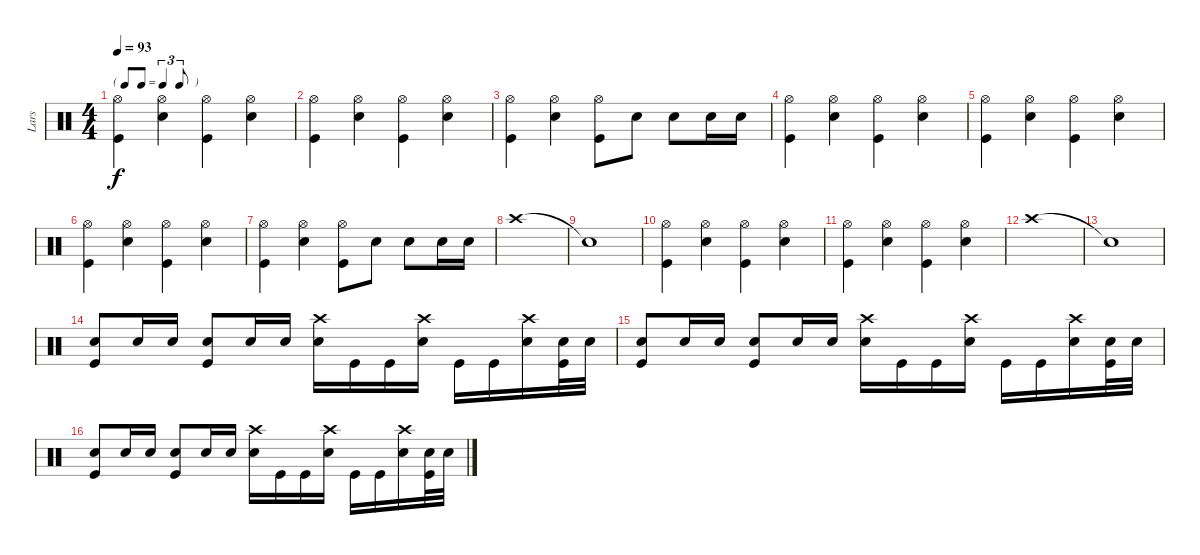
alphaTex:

\track ("Lars" "Lars") {instrument percussion}
\staff {score}
\articulation defaults
\ts (4 4)
\tf triplet8th
\tempo 93
\clef neutral
\ks c
("Hi-Hat (open)" "Kick (hit)").4{dy f} ("Hi-Hat (open)" "Snare (hit) 2").4 ("Hi-Hat (open)" "Kick (hit)").4 ("Hi-Hat (open)" "Snare (hit) 2").4 |
("Hi-Hat (open)" "Kick (hit)").4 ("Hi-Hat (open)" "Snare (hit) 2").4 ("Hi-Hat (open)" "Kick (hit)").4 ("Hi-Hat (open)" "Snare (hit) 2").4 |
("Hi-Hat (open)" "Kick (hit)").4 ("Hi-Hat (open)" "Snare (hit) 2").4 ("Hi-Hat (open)" "Kick (hit)").8 "Snare (hit) 2".8 "Snare (hit) 2".8 "Snare (hit) 2".16 "Snare (hit) 2".16 |
("Hi-Hat (open)" "Kick (hit)").4 ("Hi-Hat (open)" "Snare (hit) 2").4 ("Hi-Hat (open)" "Kick (hit)").4 ("Hi-Hat (open)" "Snare (hit) 2").4 |
("Hi-Hat (open)" "Kick (hit)").4 ("Hi-Hat (open)" "Snare (hit) 2").4 ("Hi-Hat (open)" "Kick (hit)").4 ("Hi-Hat (open)" "Snare (hit) 2").4 |
("Hi-Hat (open)" "Kick (hit)").4 ("Hi-Hat (open)" "Snare (hit) 2").4 ("Hi-Hat (open)" "Kick (hit)").4 ("Hi-Hat (open)" "Snare (hit) 2").4 |
("Hi-Hat (open)" "Kick (hit)").4 ("Hi-Hat (open)" "Snare (hit) 2").4 ("Hi-Hat (open)" "Kick (hit)").8 "Snare (hit) 2".8 "Snare (hit) 2".8 "Snare (hit) 2".16 "Snare (hit) 2".16 |
"Crash high (hit)".1 |
"Snare (hit)"{t}.1 |
("Hi-Hat (open)" "Kick (hit)").4 ("Hi-Hat (open)" "Snare (hit) 2").4 ("Hi-Hat (open)" "Kick (hit)").4 ("Hi-Hat (open)" "Snare (hit) 2").4 |
("Hi-Hat (open)" "Kick (hit)").4 ("Hi-Hat (open)" "Snare (hit) 2").4 ("Hi-Hat (open)" "Kick (hit)").4 ("Hi-Hat (open)" "Snare (hit) 2").4 |
"Crash high (hit)".1 |
"Snare (hit)"{t}.1 |
("Snare (hit) 2" "Kick (hit)").8 "Snare (hit) 2".16 "Snare (hit) 2".16 ("Snare (hit) 2" "Kick (hit)").8 "Snare (hit) 2".16 "Snare (hit) 2".16 ("Crash high (hit)" "Snare (hit) 2").16 "Kick (hit)".16 "Kick (hit)".16 ("Crash high (hit)" "Snare (hit) 2").16 "Kick (hit)".16 "Kick (hit)".16 ("Crash high (hit)" "Snare (hit) 2").16 ("Snare (hit) 2" "Kick (hit)").32 "Snare (hit) 2".32 |
("Snare (hit) 2" "Kick (hit)").8 "Snare (hit) 2".16 "Snare (hit) 2".16 ("Snare (hit) 2" "Kick (hit)").8 "Snare (hit) 2".16 "Snare (hit) 2".16 ("Crash high (hit)" "Snare (hit) 2").16 "Kick (hit)".16 "Kick (hit)".16 ("Crash high (hit)" "Snare (hit) 2").16 "Kick (hit)".16 "Kick (hit)".16 ("Crash high (hit)" "Snare (hit) 2").16 ("Snare (hit) 2" "Kick (hit)").32 "Snare (hit) 2".32 |
("Snare (hit) 2" "Kick (hit)").8 "Snare (hit) 2".16 "Snare (hit) 2".16 ("Snare (hit) 2" "Kick (hit)").8 "Snare (hit) 2".16 "Snare (hit) 2".16 ("Crash high (hit)" "Snare (hit) 2").16 "Kick (hit)".16 "Kick (hit)".16 ("Crash high (hit)" "Snare (hit) 2").16 "Kick (hit)".16 "Kick (hit)".16 ("Crash high (hit)" "Snare (hit) 2").16 ("Snare (hit) 2" "Kick (hit)").32 "Snare (hit) 2".32
